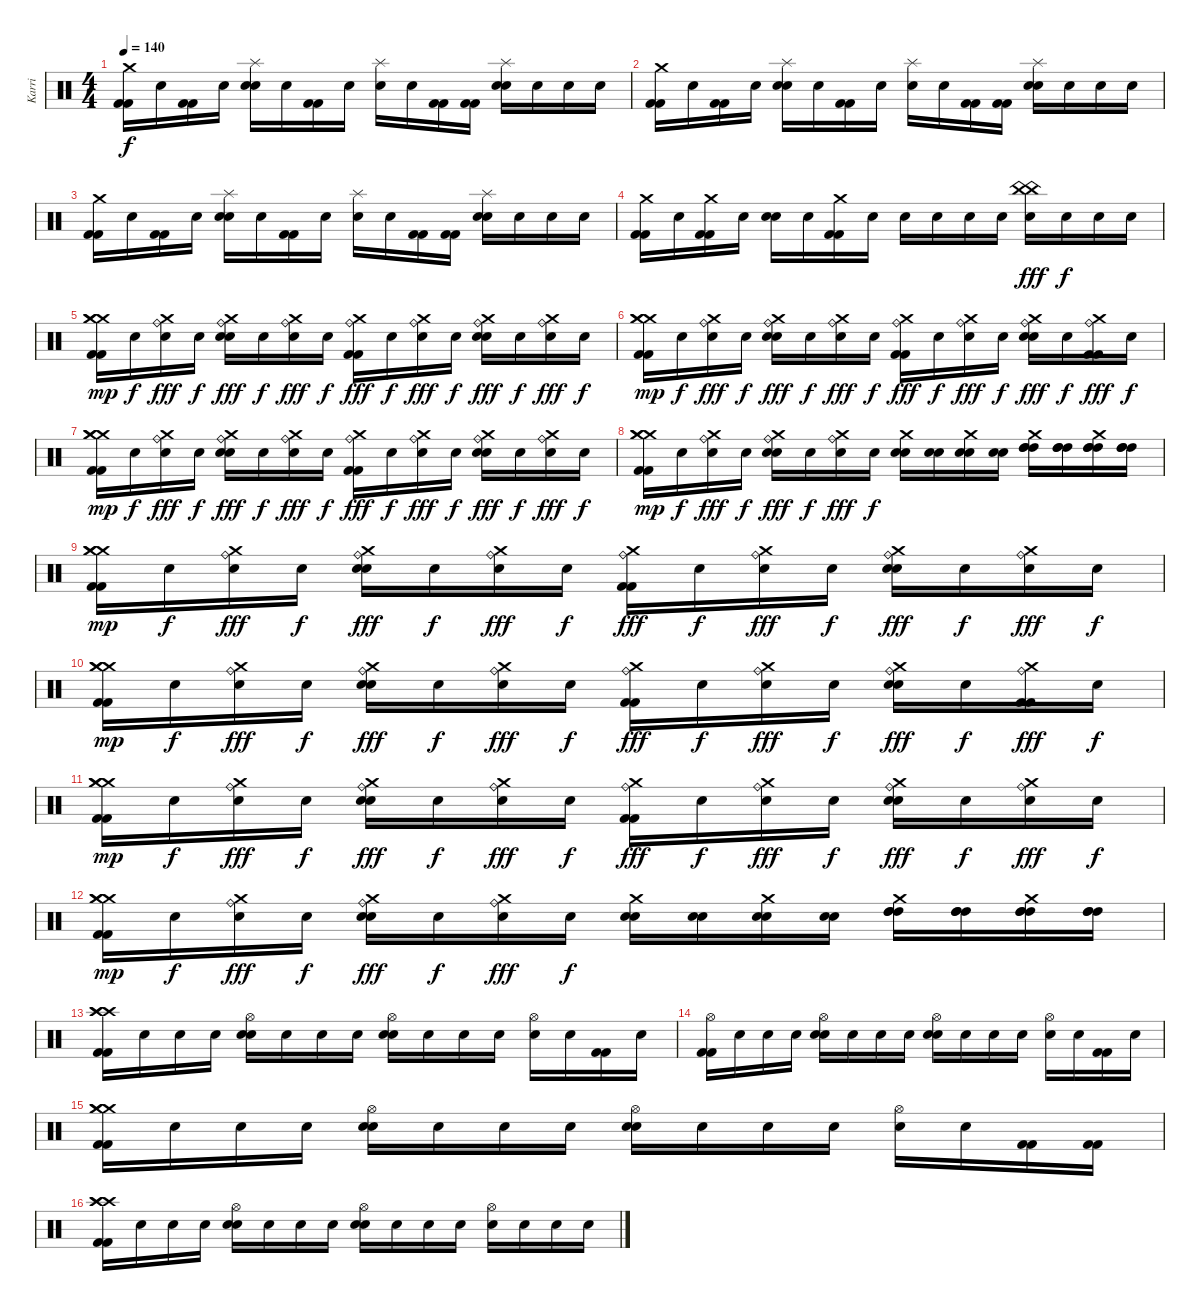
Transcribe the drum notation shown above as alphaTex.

\track ("Karri" "Karri") {instrument percussion}
\staff {score}
\articulation defaults
\ts (4 4)
\tempo 140
\clef neutral
\ks c
("Crash medium (hit)" "Kick (hit) 2" "Kick (hit) 2").16{dy f} "Snare (hit)"{x}.16 ("Kick (hit) 2" "Kick (hit) 2").16 "Snare (hit)"{x}.16 ("Splash (hit)" "Snare (hit) 2" "Snare (hit) 2").16 "Snare (hit)"{x}.16 ("Kick (hit) 2" "Kick (hit) 2").16 "Snare (hit)"{x}.16 ("Splash (hit)" "Snare (hit)"{x}).16 "Snare (hit)"{x}.16 ("Kick (hit) 2" "Kick (hit) 2").16 ("Kick (hit) 2" "Kick (hit) 2").16 ("Splash (hit)" "Snare (hit) 2" "Snare (hit) 2").16 "Snare (hit)"{x}.16 "Snare (hit)"{x}.16 "Snare (hit)"{x}.16 |
("Crash medium (hit)" "Kick (hit) 2" "Kick (hit) 2").16 "Snare (hit)"{x}.16 ("Kick (hit) 2" "Kick (hit) 2").16 "Snare (hit)"{x}.16 ("Splash (hit)" "Snare (hit) 2" "Snare (hit) 2").16 "Snare (hit)"{x}.16 ("Kick (hit) 2" "Kick (hit) 2").16 "Snare (hit)"{x}.16 ("Splash (hit)" "Snare (hit)"{x}).16 "Snare (hit)"{x}.16 ("Kick (hit) 2" "Kick (hit) 2").16 ("Kick (hit) 2" "Kick (hit) 2").16 ("Splash (hit)" "Snare (hit) 2" "Snare (hit) 2").16 "Snare (hit)"{x}.16 "Snare (hit)"{x}.16 "Snare (hit)"{x}.16 |
("Crash medium (hit)" "Kick (hit) 2" "Kick (hit) 2").16 "Snare (hit)"{x}.16 ("Kick (hit) 2" "Kick (hit) 2").16 "Snare (hit)"{x}.16 ("Splash (hit)" "Snare (hit) 2" "Snare (hit) 2").16 "Snare (hit)"{x}.16 ("Kick (hit) 2" "Kick (hit) 2").16 "Snare (hit)"{x}.16 ("Splash (hit)" "Snare (hit)"{x}).16 "Snare (hit)"{x}.16 ("Kick (hit) 2" "Kick (hit) 2").16 ("Kick (hit) 2" "Kick (hit) 2").16 ("Splash (hit)" "Snare (hit) 2" "Snare (hit) 2").16 "Snare (hit)"{x}.16 "Snare (hit)"{x}.16 "Snare (hit)"{x}.16 |
("Crash medium (hit)" "Kick (hit) 2" "Kick (hit) 2").16 "Snare (hit)"{x}.16 ("Crash medium (hit)" "Kick (hit) 2" "Kick (hit) 2").16 "Snare (hit)"{x}.16 ("Snare (hit) 2" "Snare (hit) 2").16 "Snare (hit)"{x}.16 ("Crash medium (hit)" "Kick (hit) 2" "Kick (hit) 2").16 "Snare (hit)"{x}.16 "Snare (hit)"{x}.16 "Snare (hit)"{x}.16 "Snare (hit)"{x}.16 "Snare (hit)"{x}.16 ("China (hit)" "China (hit)" "Snare (hit) 2"{x}).16{dy fff} "Snare (hit)"{x}.16{dy f} "Snare (hit)"{x}.16 "Snare (hit)"{x}.16 |
("Crash medium (hit)" "Crash medium (hit)" "Crash medium (hit)" "Kick (hit) 2" "Kick (hit) 2").16{dy mp} "Snare (hit)"{x}.16{dy f} ("Ride (bell)" "Crash medium (hit)"{x} "Snare (hit)"{x}).16{dy fff} "Snare (hit)"{x}.16{dy f} ("Ride (bell)" "Crash medium (hit)"{x} "Snare (hit) 2" "Snare (hit) 2").16{dy fff} "Snare (hit)"{x}.16{dy f} ("Ride (bell)" "Crash medium (hit)"{x} "Snare (hit)"{x}).16{dy fff} "Snare (hit)"{x}.16{dy f} ("Ride (bell)" "Crash medium (hit)"{x} "Kick (hit) 2" "Kick (hit) 2").16{dy fff} "Snare (hit)"{x}.16{dy f} ("Ride (bell)" "Crash medium (hit)"{x} "Snare (hit)"{x}).16{dy fff} "Snare (hit)"{x}.16{dy f} ("Ride (bell)" "Crash medium (hit)"{x} "Snare (hit) 2" "Snare (hit) 2").16{dy fff} "Snare (hit)"{x}.16{dy f} ("Ride (bell)" "Crash medium (hit)"{x} "Snare (hit)"{x}).16{dy fff} "Snare (hit)"{x}.16{dy f} |
("Crash medium (hit)" "Crash medium (hit)" "Crash medium (hit)" "Kick (hit) 2" "Kick (hit) 2").16{dy mp} "Snare (hit)"{x}.16{dy f} ("Ride (bell)" "Crash medium (hit)"{x} "Snare (hit)"{x}).16{dy fff} "Snare (hit)"{x}.16{dy f} ("Ride (bell)" "Crash medium (hit)"{x} "Snare (hit) 2" "Snare (hit) 2").16{dy fff} "Snare (hit)"{x}.16{dy f} ("Ride (bell)" "Crash medium (hit)"{x} "Snare (hit)"{x}).16{dy fff} "Snare (hit)"{x}.16{dy f} ("Ride (bell)" "Crash medium (hit)"{x} "Kick (hit) 2" "Kick (hit) 2").16{dy fff} "Snare (hit)"{x}.16{dy f} ("Ride (bell)" "Crash medium (hit)"{x} "Snare (hit)"{x}).16{dy fff} "Snare (hit)"{x}.16{dy f} ("Ride (bell)" "Crash medium (hit)"{x} "Snare (hit) 2" "Snare (hit) 2").16{dy fff} "Snare (hit)"{x}.16{dy f} ("Ride (bell)" "Crash medium (hit)"{x} "Kick (hit) 2" "Kick (hit) 2").16{dy fff} "Snare (hit)"{x}.16{dy f} |
("Crash medium (hit)" "Crash medium (hit)" "Crash medium (hit)" "Kick (hit) 2" "Kick (hit) 2").16{dy mp} "Snare (hit)"{x}.16{dy f} ("Ride (bell)" "Crash medium (hit)"{x} "Snare (hit)"{x}).16{dy fff} "Snare (hit)"{x}.16{dy f} ("Ride (bell)" "Crash medium (hit)"{x} "Snare (hit) 2" "Snare (hit) 2").16{dy fff} "Snare (hit)"{x}.16{dy f} ("Ride (bell)" "Crash medium (hit)"{x} "Snare (hit)"{x}).16{dy fff} "Snare (hit)"{x}.16{dy f} ("Ride (bell)" "Crash medium (hit)"{x} "Kick (hit) 2" "Kick (hit) 2").16{dy fff} "Snare (hit)"{x}.16{dy f} ("Ride (bell)" "Crash medium (hit)"{x} "Snare (hit)"{x}).16{dy fff} "Snare (hit)"{x}.16{dy f} ("Ride (bell)" "Crash medium (hit)"{x} "Snare (hit) 2" "Snare (hit) 2").16{dy fff} "Snare (hit)"{x}.16{dy f} ("Ride (bell)" "Crash medium (hit)"{x} "Snare (hit)"{x}).16{dy fff} "Snare (hit)"{x}.16{dy f} |
("Crash medium (hit)" "Crash medium (hit)" "Crash medium (hit)" "Kick (hit) 2" "Kick (hit) 2").16{dy mp} "Snare (hit)"{x}.16{dy f} ("Ride (bell)" "Crash medium (hit)"{x} "Snare (hit)"{x}).16{dy fff} "Snare (hit)"{x}.16{dy f} ("Ride (bell)" "Crash medium (hit)"{x} "Snare (hit) 2" "Snare (hit) 2").16{dy fff} "Snare (hit)"{x}.16{dy f} ("Ride (bell)" "Crash medium (hit)"{x} "Snare (hit)"{x}).16{dy fff} "Snare (hit)"{x}.16{dy f} ("Crash medium (hit)"{x} "Snare (hit) 2" "Snare (hit) 2").16 ("Snare (hit) 2" "Snare (hit) 2").16 ("Crash medium (hit)"{x} "Snare (hit) 2" "Snare (hit) 2").16 ("Snare (hit) 2" "Snare (hit) 2").16 ("Crash medium (hit)"{x} "High Tom (hit)" "High Tom (hit)" "High Tom (hit)").16 ("High Tom (hit)" "High Tom (hit)" "High Tom (hit)").16 ("Crash medium (hit)"{x} "High Tom (hit)" "High Tom (hit)" "High Tom (hit)").16 ("High Tom (hit)" "High Tom (hit)" "High Tom (hit)").16 |
("Crash medium (hit)" "Crash medium (hit)" "Crash medium (hit)" "Kick (hit) 2" "Kick (hit) 2").16{dy mp} "Snare (hit)"{x}.16{dy f} ("Ride (bell)" "Crash medium (hit)"{x} "Snare (hit)"{x}).16{dy fff} "Snare (hit)"{x}.16{dy f} ("Ride (bell)" "Crash medium (hit)"{x} "Snare (hit) 2" "Snare (hit) 2").16{dy fff} "Snare (hit)"{x}.16{dy f} ("Ride (bell)" "Crash medium (hit)"{x} "Snare (hit)"{x}).16{dy fff} "Snare (hit)"{x}.16{dy f} ("Ride (bell)" "Crash medium (hit)"{x} "Kick (hit) 2" "Kick (hit) 2").16{dy fff} "Snare (hit)"{x}.16{dy f} ("Ride (bell)" "Crash medium (hit)"{x} "Snare (hit)"{x}).16{dy fff} "Snare (hit)"{x}.16{dy f} ("Ride (bell)" "Crash medium (hit)"{x} "Snare (hit) 2" "Snare (hit) 2").16{dy fff} "Snare (hit)"{x}.16{dy f} ("Ride (bell)" "Crash medium (hit)"{x} "Snare (hit)"{x}).16{dy fff} "Snare (hit)"{x}.16{dy f} |
("Crash medium (hit)" "Crash medium (hit)" "Crash medium (hit)" "Kick (hit) 2" "Kick (hit) 2").16{dy mp} "Snare (hit)"{x}.16{dy f} ("Ride (bell)" "Crash medium (hit)"{x} "Snare (hit)"{x}).16{dy fff} "Snare (hit)"{x}.16{dy f} ("Ride (bell)" "Crash medium (hit)"{x} "Snare (hit) 2" "Snare (hit) 2").16{dy fff} "Snare (hit)"{x}.16{dy f} ("Ride (bell)" "Crash medium (hit)"{x} "Snare (hit)"{x}).16{dy fff} "Snare (hit)"{x}.16{dy f} ("Ride (bell)" "Crash medium (hit)"{x} "Kick (hit) 2" "Kick (hit) 2").16{dy fff} "Snare (hit)"{x}.16{dy f} ("Ride (bell)" "Crash medium (hit)"{x} "Snare (hit)"{x}).16{dy fff} "Snare (hit)"{x}.16{dy f} ("Ride (bell)" "Crash medium (hit)"{x} "Snare (hit) 2" "Snare (hit) 2").16{dy fff} "Snare (hit)"{x}.16{dy f} ("Ride (bell)" "Crash medium (hit)"{x} "Kick (hit) 2" "Kick (hit) 2").16{dy fff} "Snare (hit)"{x}.16{dy f} |
("Crash medium (hit)" "Crash medium (hit)" "Crash medium (hit)" "Kick (hit) 2" "Kick (hit) 2").16{dy mp} "Snare (hit)"{x}.16{dy f} ("Ride (bell)" "Crash medium (hit)"{x} "Snare (hit)"{x}).16{dy fff} "Snare (hit)"{x}.16{dy f} ("Ride (bell)" "Crash medium (hit)"{x} "Snare (hit) 2" "Snare (hit) 2").16{dy fff} "Snare (hit)"{x}.16{dy f} ("Ride (bell)" "Crash medium (hit)"{x} "Snare (hit)"{x}).16{dy fff} "Snare (hit)"{x}.16{dy f} ("Ride (bell)" "Crash medium (hit)"{x} "Kick (hit) 2" "Kick (hit) 2").16{dy fff} "Snare (hit)"{x}.16{dy f} ("Ride (bell)" "Crash medium (hit)"{x} "Snare (hit)"{x}).16{dy fff} "Snare (hit)"{x}.16{dy f} ("Ride (bell)" "Crash medium (hit)"{x} "Snare (hit) 2" "Snare (hit) 2").16{dy fff} "Snare (hit)"{x}.16{dy f} ("Ride (bell)" "Crash medium (hit)"{x} "Snare (hit)"{x}).16{dy fff} "Snare (hit)"{x}.16{dy f} |
("Crash medium (hit)" "Crash medium (hit)" "Crash medium (hit)" "Kick (hit) 2" "Kick (hit) 2").16{dy mp} "Snare (hit)"{x}.16{dy f} ("Ride (bell)" "Crash medium (hit)"{x} "Snare (hit)"{x}).16{dy fff} "Snare (hit)"{x}.16{dy f} ("Ride (bell)" "Crash medium (hit)"{x} "Snare (hit) 2" "Snare (hit) 2").16{dy fff} "Snare (hit)"{x}.16{dy f} ("Ride (bell)" "Crash medium (hit)"{x} "Snare (hit)"{x}).16{dy fff} "Snare (hit)"{x}.16{dy f} ("Crash medium (hit)"{x} "Snare (hit) 2" "Snare (hit) 2").16 ("Snare (hit) 2" "Snare (hit) 2").16 ("Crash medium (hit)"{x} "Snare (hit) 2" "Snare (hit) 2").16 ("Snare (hit) 2" "Snare (hit) 2").16 ("Crash medium (hit)"{x} "High Tom (hit)" "High Tom (hit)" "High Tom (hit)").16 ("High Tom (hit)" "High Tom (hit)" "High Tom (hit)").16 ("Crash medium (hit)"{x} "High Tom (hit)" "High Tom (hit)" "High Tom (hit)").16 ("High Tom (hit)" "High Tom (hit)" "High Tom (hit)").16 |
("Crash high (hit)" "Crash high (hit)" "Crash high (hit)" "Kick (hit) 2" "Kick (hit) 2").16 "Snare (hit)"{x}.16 "Snare (hit)"{x}.16 "Snare (hit)"{x}.16 ("Hi-Hat (open)" "Snare (hit) 2"{x} "Snare (hit) 2"{x}).16 "Snare (hit)"{x}.16 "Snare (hit)"{x}.16 "Snare (hit)"{x}.16 ("Hi-Hat (open)" "Snare (hit) 2" "Snare (hit) 2").16 "Snare (hit)"{x}.16 "Snare (hit)"{x}.16 "Snare (hit)"{x}.16 ("Hi-Hat (open)" "Snare (hit) 2"{x}).16 "Snare (hit)"{x}.16 ("Kick (hit) 2" "Kick (hit) 2").16 "Snare (hit)"{x}.16 |
("Hi-Hat (open)" "Kick (hit) 2" "Kick (hit) 2").16 "Snare (hit)"{x}.16 "Snare (hit)"{x}.16 "Snare (hit)"{x}.16 ("Hi-Hat (open)" "Snare (hit) 2"{x} "Snare (hit) 2"{x}).16 "Snare (hit)"{x}.16 "Snare (hit)"{x}.16 "Snare (hit)"{x}.16 ("Hi-Hat (open)" "Snare (hit) 2" "Snare (hit) 2").16 "Snare (hit)"{x}.16 "Snare (hit)"{x}.16 "Snare (hit)"{x}.16 ("Hi-Hat (open)" "Snare (hit) 2"{x}).16 "Snare (hit)"{x}.16 ("Kick (hit) 2" "Kick (hit) 2").16 "Snare (hit)"{x}.16 |
("Crash medium (hit)" "Crash medium (hit)" "Crash medium (hit)" "Kick (hit) 2" "Kick (hit) 2").16 "Snare (hit)"{x}.16 "Snare (hit)"{x}.16 "Snare (hit)"{x}.16 ("Hi-Hat (open)" "Snare (hit) 2"{x} "Snare (hit) 2"{x}).16 "Snare (hit)"{x}.16 "Snare (hit)"{x}.16 "Snare (hit)"{x}.16 ("Hi-Hat (open)" "Snare (hit) 2" "Snare (hit) 2").16 "Snare (hit)"{x}.16 "Snare (hit)"{x}.16 "Snare (hit)"{x}.16 ("Hi-Hat (open)" "Snare (hit) 2"{x}).16 "Snare (hit)"{x}.16 ("Kick (hit) 2" "Kick (hit) 2").16 ("Kick (hit) 2" "Kick (hit) 2").16 |
("Crash high (hit)" "Crash high (hit)" "Crash high (hit)" "Kick (hit) 2" "Kick (hit) 2").16 "Snare (hit)"{x}.16 "Snare (hit)"{x}.16 "Snare (hit)"{x}.16 ("Hi-Hat (open)" "Snare (hit) 2"{x} "Snare (hit) 2"{x}).16 "Snare (hit)"{x}.16 "Snare (hit)"{x}.16 "Snare (hit)"{x}.16 ("Hi-Hat (open)" "Snare (hit) 2" "Snare (hit) 2").16 "Snare (hit)"{x}.16 "Snare (hit)"{x}.16 "Snare (hit)"{x}.16 ("Hi-Hat (open)" "Snare (hit) 2").16 "Snare (hit) 2".16 "Snare (hit) 2".16 "Snare (hit) 2".16
